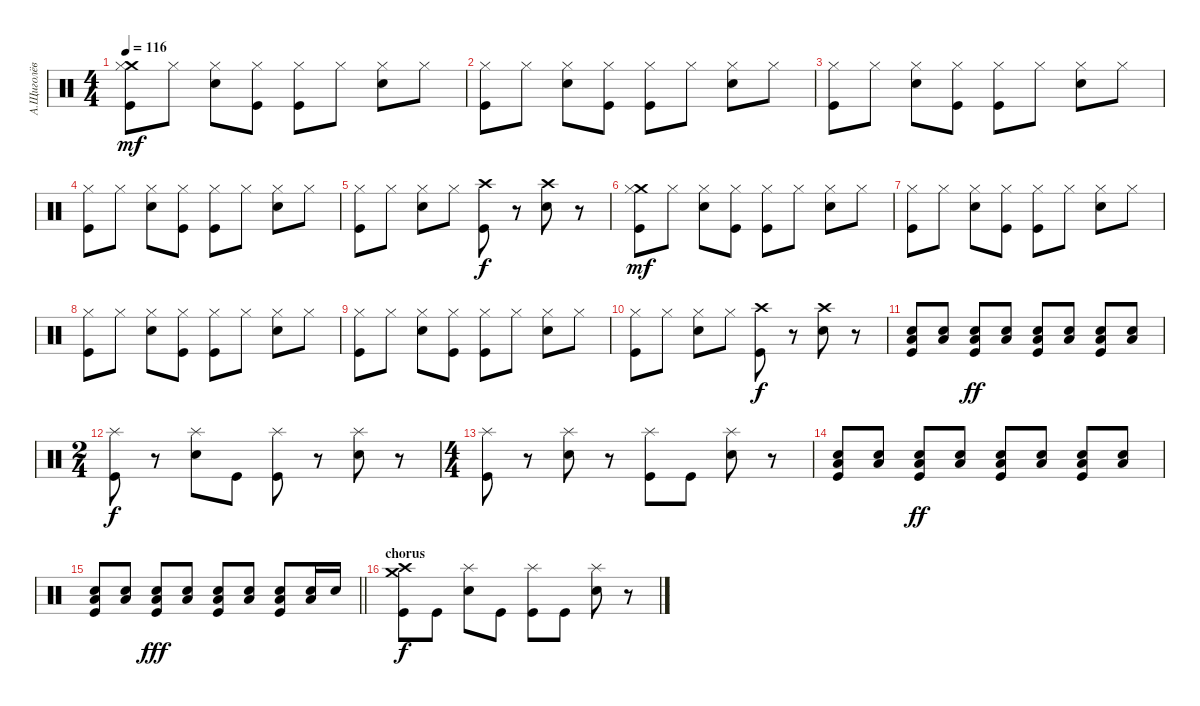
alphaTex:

\track ("А.Щиголёв" "А.Щиголёв") {instrument percussion}
\staff {score}
\articulation defaults
\ts (4 4)
\tempo 116
\clef neutral
\ks c
("Crash medium (hit)" "Hi-Hat (closed)" "Kick (hit)").8{dy mf} "Hi-Hat (closed)".8 ("Hi-Hat (closed)" "Electric Snare (hit)").8 ("Hi-Hat (closed)" "Kick (hit)").8 ("Hi-Hat (closed)" "Kick (hit)").8 "Hi-Hat (closed)".8 ("Hi-Hat (closed)" "Electric Snare (hit)").8 "Hi-Hat (closed)".8 |
("Hi-Hat (closed)" "Kick (hit)").8 "Hi-Hat (closed)".8 ("Hi-Hat (closed)" "Electric Snare (hit)").8 ("Hi-Hat (closed)" "Kick (hit)").8 ("Hi-Hat (closed)" "Kick (hit)").8 "Hi-Hat (closed)".8 ("Hi-Hat (closed)" "Electric Snare (hit)").8 "Hi-Hat (closed)".8 |
("Hi-Hat (closed)" "Kick (hit)").8 "Hi-Hat (closed)".8 ("Hi-Hat (closed)" "Electric Snare (hit)").8 ("Hi-Hat (closed)" "Kick (hit)").8 ("Hi-Hat (closed)" "Kick (hit)").8 "Hi-Hat (closed)".8 ("Hi-Hat (closed)" "Electric Snare (hit)").8 "Hi-Hat (closed)".8 |
("Hi-Hat (closed)" "Kick (hit)").8 "Hi-Hat (closed)".8 ("Hi-Hat (closed)" "Electric Snare (hit)").8 ("Hi-Hat (closed)" "Kick (hit)").8 ("Hi-Hat (closed)" "Kick (hit)").8 "Hi-Hat (closed)".8 ("Hi-Hat (closed)" "Electric Snare (hit)").8 "Hi-Hat (closed)".8 |
("Hi-Hat (closed)" "Kick (hit)").8 "Hi-Hat (closed)".8 ("Hi-Hat (closed)" "Electric Snare (hit)").8 "Hi-Hat (closed)".8 ("Kick (hit)" "Crash high (hit)").8{dy f} r.8 ("Electric Snare (hit)" "Crash high (hit)").8 r.8 |
("Crash medium (hit)" "Hi-Hat (closed)" "Kick (hit)").8{dy mf} "Hi-Hat (closed)".8 ("Hi-Hat (closed)" "Electric Snare (hit)").8 ("Hi-Hat (closed)" "Kick (hit)").8 ("Hi-Hat (closed)" "Kick (hit)").8 "Hi-Hat (closed)".8 ("Hi-Hat (closed)" "Electric Snare (hit)").8 "Hi-Hat (closed)".8 |
("Hi-Hat (closed)" "Kick (hit)").8 "Hi-Hat (closed)".8 ("Hi-Hat (closed)" "Electric Snare (hit)").8 ("Hi-Hat (closed)" "Kick (hit)").8 ("Hi-Hat (closed)" "Kick (hit)").8 "Hi-Hat (closed)".8 ("Hi-Hat (closed)" "Electric Snare (hit)").8 "Hi-Hat (closed)".8 |
("Hi-Hat (closed)" "Kick (hit)").8 "Hi-Hat (closed)".8 ("Hi-Hat (closed)" "Electric Snare (hit)").8 ("Hi-Hat (closed)" "Kick (hit)").8 ("Hi-Hat (closed)" "Kick (hit)").8 "Hi-Hat (closed)".8 ("Hi-Hat (closed)" "Electric Snare (hit)").8 "Hi-Hat (closed)".8 |
("Hi-Hat (closed)" "Kick (hit)").8 "Hi-Hat (closed)".8 ("Hi-Hat (closed)" "Electric Snare (hit)").8 ("Hi-Hat (closed)" "Kick (hit)").8 ("Hi-Hat (closed)" "Kick (hit)").8 "Hi-Hat (closed)".8 ("Hi-Hat (closed)" "Electric Snare (hit)").8 "Hi-Hat (closed)".8 |
("Hi-Hat (closed)" "Kick (hit)").8 "Hi-Hat (closed)".8 ("Hi-Hat (closed)" "Electric Snare (hit)").8 "Hi-Hat (closed)".8 ("Kick (hit)" "Crash high (hit)").8{dy f} r.8 ("Electric Snare (hit)" "Crash high (hit)").8 r.8 |
("Low Floor Tom (hit)" "Electric Snare (hit)" "Kick (hit)").8 ("Low Floor Tom (hit)" "Electric Snare (hit)").8 ("Low Floor Tom (hit)" "Electric Snare (hit)" "Kick (hit)").8{dy ff} ("Low Floor Tom (hit)" "Electric Snare (hit)").8 ("Low Floor Tom (hit)" "Electric Snare (hit)" "Kick (hit)").8 ("Low Floor Tom (hit)" "Electric Snare (hit)").8 ("Low Floor Tom (hit)" "Electric Snare (hit)" "Kick (hit)").8 ("Low Floor Tom (hit)" "Electric Snare (hit)").8 |
\ts (2 4)
("Splash (hit)" "Kick (hit)").8{dy f} r.8 ("Splash (hit)" "Electric Snare (hit)").8 "Kick (hit)".8 ("Splash (hit)" "Kick (hit)").8 r.8 ("Splash (hit)" "Electric Snare (hit)").8 r.8 |
\ts (4 4)
("Splash (hit)" "Kick (hit)").8 r.8 ("Splash (hit)" "Electric Snare (hit)").8 r.8 ("Splash (hit)" "Kick (hit)").8 "Kick (hit)".8 ("Splash (hit)" "Electric Snare (hit)").8 r.8 |
("Low Floor Tom (hit)" "Electric Snare (hit)" "Kick (hit)").8 ("Low Floor Tom (hit)" "Electric Snare (hit)").8 ("Low Floor Tom (hit)" "Electric Snare (hit)" "Kick (hit)").8{dy ff} ("Low Floor Tom (hit)" "Electric Snare (hit)").8 ("Low Floor Tom (hit)" "Electric Snare (hit)" "Kick (hit)").8 ("Low Floor Tom (hit)" "Electric Snare (hit)").8 ("Low Floor Tom (hit)" "Electric Snare (hit)" "Kick (hit)").8 ("Low Floor Tom (hit)" "Electric Snare (hit)").8 |
\barLineRight lightlight
("Low Floor Tom (hit)" "Electric Snare (hit)" "Kick (hit)").8 ("Low Floor Tom (hit)" "Electric Snare (hit)").8 ("Low Floor Tom (hit)" "Electric Snare (hit)" "Kick (hit)").8{dy fff} ("Low Floor Tom (hit)" "Electric Snare (hit)").8 ("Low Floor Tom (hit)" "Electric Snare (hit)" "Kick (hit)").8 ("Low Floor Tom (hit)" "Electric Snare (hit)").8 ("Low Floor Tom (hit)" "Electric Snare (hit)" "Kick (hit)").8 ("Electric Snare (hit)" "Low Floor Tom (hit)").16 "Electric Snare (hit)".16 |
\section ("" "chorus")
("Crash medium (hit)" "Crash high (hit)" "Kick (hit)").8{dy f} "Kick (hit)".8 ("Splash (hit)" "Electric Snare (hit)").8 "Kick (hit)".8 ("Splash (hit)" "Kick (hit)").8 "Kick (hit)".8 ("Splash (hit)" "Electric Snare (hit)").8 r.8
